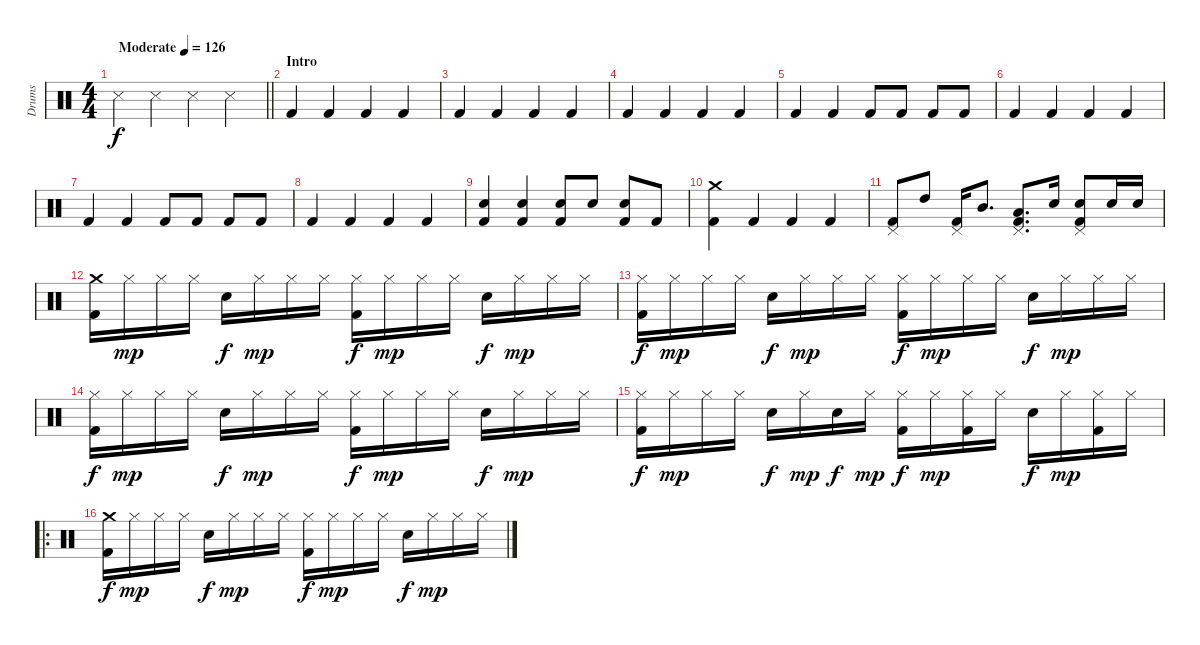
\track ("Drums" "Drums") {instrument percussion}
\staff {score}
\articulation defaults
\ts (4 4)
\tempo (126 "Moderate")
\clef neutral
\barLineRight lightlight
\ks c "Metronome (hit)".4{dy f} "Metronome (hit)".4 "Metronome (hit)".4 "Metronome (hit)".4
|
\section ("" "Intro")
"Kick (hit) 2".4 "Kick (hit) 2".4 "Kick (hit) 2".4 "Kick (hit) 2".4 |
"Kick (hit) 2".4 "Kick (hit) 2".4 "Kick (hit) 2".4 "Kick (hit) 2".4 |
"Kick (hit) 2".4 "Kick (hit) 2".4 "Kick (hit) 2".4 "Kick (hit) 2".4 |
"Kick (hit) 2".4 "Kick (hit) 2".4 "Kick (hit) 2".8 "Kick (hit) 2".8 "Kick (hit) 2".8 "Kick (hit) 2".8 |
"Kick (hit) 2".4 "Kick (hit) 2".4 "Kick (hit) 2".4 "Kick (hit) 2".4 |
"Kick (hit) 2".4 "Kick (hit) 2".4 "Kick (hit) 2".8 "Kick (hit) 2".8 "Kick (hit) 2".8 "Kick (hit) 2".8 |
"Kick (hit) 2".4 "Kick (hit) 2".4 "Kick (hit) 2".4 "Kick (hit) 2".4 |
("Snare (hit) 2" "Kick (hit) 2").4 ("Snare (hit) 2" "Kick (hit) 2").4 ("Snare (hit) 2" "Kick (hit) 2").8 "Snare (hit) 2".8 ("Snare (hit) 2" "Kick (hit) 2").8 "Kick (hit) 2".8 |
("Crash medium (hit)" "Kick (hit) 2").4 "Kick (hit) 2".4 "Kick (hit) 2".4 "Kick (hit) 2".4 |
("Pedal Hi-Hat (hit)" "Kick (hit) 2").8 "High Tom (hit)".8 ("Pedal Hi-Hat (hit)" "Kick (hit) 2").16 "Mid Tom (hit)".8{d} ("Pedal Hi-Hat (hit)" "Low Tom (hit)" "Kick (hit) 2").8{d} "Snare (hit) 2".16 ("Pedal Hi-Hat (hit)" "Snare (hit) 2" "Kick (hit) 2").8 "Snare (hit) 2".16 "Snare (hit) 2".16 |
("Crash medium (hit)" "Kick (hit) 2").16 "Hi-Hat (closed)".16{dy mp} "Hi-Hat (closed)".16 "Hi-Hat (closed)".16 "Snare (hit) 2".16{dy f} "Hi-Hat (closed)".16{dy mp} "Hi-Hat (closed)".16 "Hi-Hat (closed)".16 ("Hi-Hat (closed)" "Kick (hit) 2").16{dy f} "Hi-Hat (closed)".16{dy mp} "Hi-Hat (closed)".16 "Hi-Hat (closed)".16 "Snare (hit) 2".16{dy f} "Hi-Hat (closed)".16{dy mp} "Hi-Hat (closed)".16 "Hi-Hat (closed)".16 |
("Hi-Hat (closed)" "Kick (hit) 2").16{dy f} "Hi-Hat (closed)".16{dy mp} "Hi-Hat (closed)".16 "Hi-Hat (closed)".16 "Snare (hit) 2".16{dy f} "Hi-Hat (closed)".16{dy mp} "Hi-Hat (closed)".16 "Hi-Hat (closed)".16 ("Hi-Hat (closed)" "Kick (hit) 2").16{dy f} "Hi-Hat (closed)".16{dy mp} "Hi-Hat (closed)".16 "Hi-Hat (closed)".16 "Snare (hit) 2".16{dy f} "Hi-Hat (closed)".16{dy mp} "Hi-Hat (closed)".16 "Hi-Hat (closed)".16 |
("Hi-Hat (closed)" "Kick (hit) 2").16{dy f} "Hi-Hat (closed)".16{dy mp} "Hi-Hat (closed)".16 "Hi-Hat (closed)".16 "Snare (hit) 2".16{dy f} "Hi-Hat (closed)".16{dy mp} "Hi-Hat (closed)".16 "Hi-Hat (closed)".16 ("Hi-Hat (closed)" "Kick (hit) 2").16{dy f} "Hi-Hat (closed)".16{dy mp} "Hi-Hat (closed)".16 "Hi-Hat (closed)".16 "Snare (hit) 2".16{dy f} "Hi-Hat (closed)".16{dy mp} "Hi-Hat (closed)".16 "Hi-Hat (closed)".16 |
("Hi-Hat (closed)" "Kick (hit) 2").16{dy f} "Hi-Hat (closed)".16{dy mp} "Hi-Hat (closed)".16 "Hi-Hat (closed)".16 "Snare (hit) 2".16{dy f} "Hi-Hat (closed)".16{dy mp} "Snare (hit) 2".16{dy f} "Hi-Hat (closed)".16{dy mp} ("Hi-Hat (closed)" "Kick (hit) 2").16{dy f} "Hi-Hat (closed)".16{dy mp} ("Hi-Hat (closed)" "Kick (hit) 2").16 "Hi-Hat (closed)".16 "Snare (hit) 2".16{dy f} "Hi-Hat (closed)".16{dy mp} ("Hi-Hat (closed)" "Kick (hit) 2").16 "Hi-Hat (closed)".16 |
\ro
("Crash medium (hit)" "Kick (hit) 2").16{dy f} "Hi-Hat (closed)".16{dy mp} "Hi-Hat (closed)".16 "Hi-Hat (closed)".16 "Snare (hit) 2".16{dy f} "Hi-Hat (closed)".16{dy mp} "Hi-Hat (closed)".16 "Hi-Hat (closed)".16 ("Hi-Hat (closed)" "Kick (hit) 2").16{dy f} "Hi-Hat (closed)".16{dy mp} "Hi-Hat (closed)".16 "Hi-Hat (closed)".16 "Snare (hit) 2".16{dy f} "Hi-Hat (closed)".16{dy mp} "Hi-Hat (closed)".16 "Hi-Hat (closed)".16
